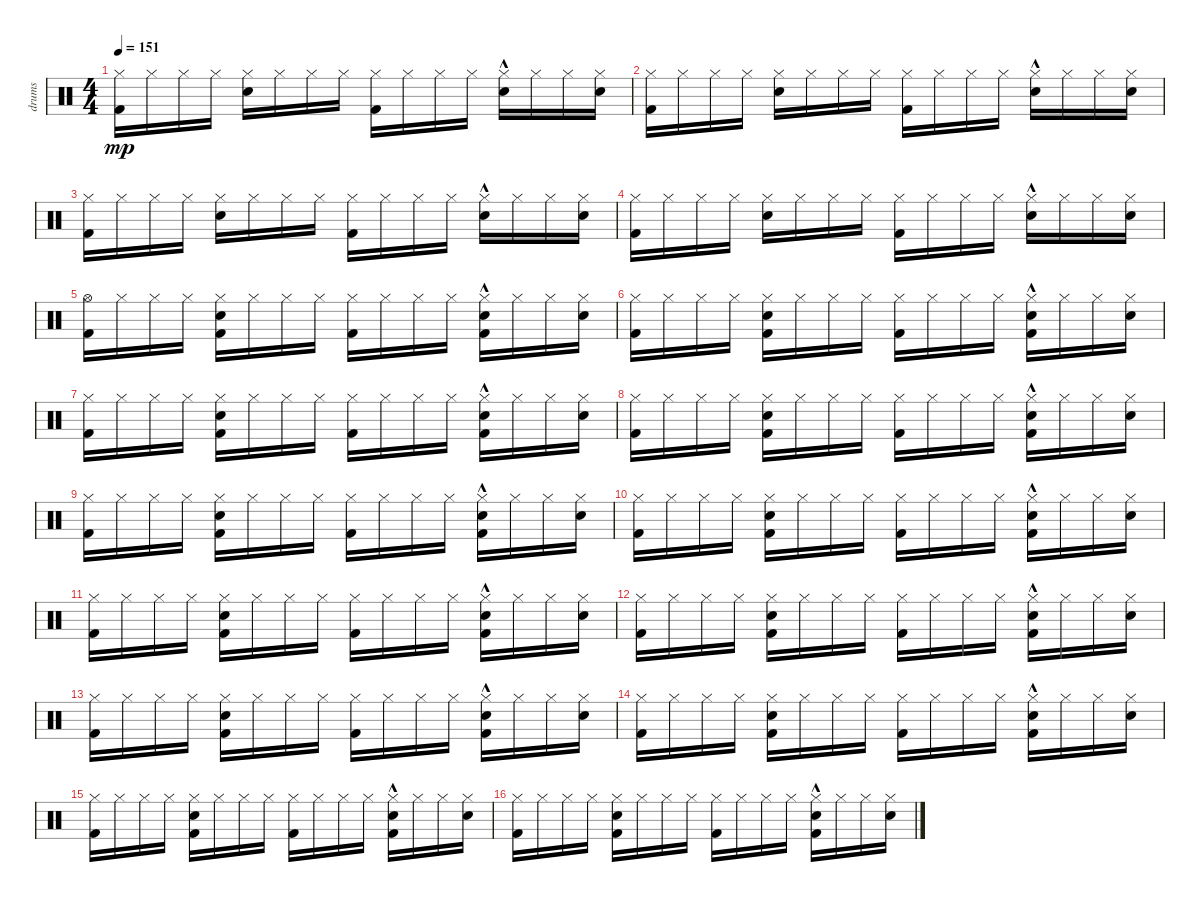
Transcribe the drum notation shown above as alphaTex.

\track ("drums" "drums") {instrument percussion}
\staff {score}
\articulation defaults
\ts (4 4)
\tempo 151
\clef neutral
\ks c
("Hi-Hat (closed)" "Kick (hit) 2").16{dy mp} "Hi-Hat (closed)".16 "Hi-Hat (closed)".16 "Hi-Hat (closed)".16 ("Hi-Hat (closed)" "Snare (hit) 2").16 "Hi-Hat (closed)".16 "Hi-Hat (closed)".16 "Hi-Hat (closed)".16 ("Hi-Hat (closed)" "Kick (hit) 2").16 "Hi-Hat (closed)".16 "Hi-Hat (closed)".16 "Hi-Hat (closed)".16 ("Hi-Hat (closed)" "Snare (hit) 2"{hac}).16 "Hi-Hat (closed)".16 "Hi-Hat (closed)".16 ("Hi-Hat (closed)" "Snare (hit) 2").16 |
("Hi-Hat (closed)" "Kick (hit) 2").16 "Hi-Hat (closed)".16 "Hi-Hat (closed)".16 "Hi-Hat (closed)".16 ("Hi-Hat (closed)" "Snare (hit) 2").16 "Hi-Hat (closed)".16 "Hi-Hat (closed)".16 "Hi-Hat (closed)".16 ("Hi-Hat (closed)" "Kick (hit) 2").16 "Hi-Hat (closed)".16 "Hi-Hat (closed)".16 "Hi-Hat (closed)".16 ("Hi-Hat (closed)" "Snare (hit) 2"{hac}).16 "Hi-Hat (closed)".16 "Hi-Hat (closed)".16 ("Hi-Hat (closed)" "Snare (hit) 2").16 |
("Hi-Hat (closed)" "Kick (hit) 2").16 "Hi-Hat (closed)".16 "Hi-Hat (closed)".16 "Hi-Hat (closed)".16 ("Hi-Hat (closed)" "Snare (hit) 2").16 "Hi-Hat (closed)".16 "Hi-Hat (closed)".16 "Hi-Hat (closed)".16 ("Hi-Hat (closed)" "Kick (hit) 2").16 "Hi-Hat (closed)".16 "Hi-Hat (closed)".16 "Hi-Hat (closed)".16 ("Hi-Hat (closed)" "Snare (hit) 2"{hac}).16 "Hi-Hat (closed)".16 "Hi-Hat (closed)".16 ("Hi-Hat (closed)" "Snare (hit) 2").16 |
("Hi-Hat (closed)" "Kick (hit) 2").16 "Hi-Hat (closed)".16 "Hi-Hat (closed)".16 "Hi-Hat (closed)".16 ("Hi-Hat (closed)" "Snare (hit) 2").16 "Hi-Hat (closed)".16 "Hi-Hat (closed)".16 "Hi-Hat (closed)".16 ("Hi-Hat (closed)" "Kick (hit) 2").16 "Hi-Hat (closed)".16 "Hi-Hat (closed)".16 "Hi-Hat (closed)".16 ("Hi-Hat (closed)" "Snare (hit) 2"{hac}).16 "Hi-Hat (closed)".16 "Hi-Hat (closed)".16 ("Hi-Hat (closed)" "Snare (hit) 2").16 |
("Hi-Hat (open)" "Kick (hit) 2").16 "Hi-Hat (closed)".16 "Hi-Hat (closed)".16 "Hi-Hat (closed)".16 ("Hi-Hat (closed)" "Kick (hit) 2" "Snare (hit) 2").16 "Hi-Hat (closed)".16 "Hi-Hat (closed)".16 "Hi-Hat (closed)".16 ("Hi-Hat (closed)" "Kick (hit) 2").16 "Hi-Hat (closed)".16 "Hi-Hat (closed)".16 "Hi-Hat (closed)".16 ("Hi-Hat (closed)" "Kick (hit) 2"{hac} "Snare (hit) 2"{hac}).16 "Hi-Hat (closed)".16 "Hi-Hat (closed)".16 ("Hi-Hat (closed)" "Snare (hit) 2").16 |
("Hi-Hat (closed)" "Kick (hit) 2").16 "Hi-Hat (closed)".16 "Hi-Hat (closed)".16 "Hi-Hat (closed)".16 ("Hi-Hat (closed)" "Kick (hit) 2" "Snare (hit) 2").16 "Hi-Hat (closed)".16 "Hi-Hat (closed)".16 "Hi-Hat (closed)".16 ("Hi-Hat (closed)" "Kick (hit) 2").16 "Hi-Hat (closed)".16 "Hi-Hat (closed)".16 "Hi-Hat (closed)".16 ("Hi-Hat (closed)" "Kick (hit) 2"{hac} "Snare (hit) 2"{hac}).16 "Hi-Hat (closed)".16 "Hi-Hat (closed)".16 ("Hi-Hat (closed)" "Snare (hit) 2").16 |
("Hi-Hat (closed)" "Kick (hit) 2").16 "Hi-Hat (closed)".16 "Hi-Hat (closed)".16 "Hi-Hat (closed)".16 ("Hi-Hat (closed)" "Kick (hit) 2" "Snare (hit) 2").16 "Hi-Hat (closed)".16 "Hi-Hat (closed)".16 "Hi-Hat (closed)".16 ("Hi-Hat (closed)" "Kick (hit) 2").16 "Hi-Hat (closed)".16 "Hi-Hat (closed)".16 "Hi-Hat (closed)".16 ("Hi-Hat (closed)" "Kick (hit) 2"{hac} "Snare (hit) 2"{hac}).16 "Hi-Hat (closed)".16 "Hi-Hat (closed)".16 ("Hi-Hat (closed)" "Snare (hit) 2").16 |
("Hi-Hat (closed)" "Kick (hit) 2").16 "Hi-Hat (closed)".16 "Hi-Hat (closed)".16 "Hi-Hat (closed)".16 ("Hi-Hat (closed)" "Kick (hit) 2" "Snare (hit) 2").16 "Hi-Hat (closed)".16 "Hi-Hat (closed)".16 "Hi-Hat (closed)".16 ("Hi-Hat (closed)" "Kick (hit) 2").16 "Hi-Hat (closed)".16 "Hi-Hat (closed)".16 "Hi-Hat (closed)".16 ("Hi-Hat (closed)" "Kick (hit) 2"{hac} "Snare (hit) 2"{hac}).16 "Hi-Hat (closed)".16 "Hi-Hat (closed)".16 ("Hi-Hat (closed)" "Snare (hit) 2").16 |
("Hi-Hat (closed)" "Kick (hit) 2").16 "Hi-Hat (closed)".16 "Hi-Hat (closed)".16 "Hi-Hat (closed)".16 ("Hi-Hat (closed)" "Kick (hit) 2" "Snare (hit) 2").16 "Hi-Hat (closed)".16 "Hi-Hat (closed)".16 "Hi-Hat (closed)".16 ("Hi-Hat (closed)" "Kick (hit) 2").16 "Hi-Hat (closed)".16 "Hi-Hat (closed)".16 "Hi-Hat (closed)".16 ("Hi-Hat (closed)" "Kick (hit) 2"{hac} "Snare (hit) 2"{hac}).16 "Hi-Hat (closed)".16 "Hi-Hat (closed)".16 ("Hi-Hat (closed)" "Snare (hit) 2").16 |
("Hi-Hat (closed)" "Kick (hit) 2").16 "Hi-Hat (closed)".16 "Hi-Hat (closed)".16 "Hi-Hat (closed)".16 ("Hi-Hat (closed)" "Kick (hit) 2" "Snare (hit) 2").16 "Hi-Hat (closed)".16 "Hi-Hat (closed)".16 "Hi-Hat (closed)".16 ("Hi-Hat (closed)" "Kick (hit) 2").16 "Hi-Hat (closed)".16 "Hi-Hat (closed)".16 "Hi-Hat (closed)".16 ("Hi-Hat (closed)" "Kick (hit) 2"{hac} "Snare (hit) 2"{hac}).16 "Hi-Hat (closed)".16 "Hi-Hat (closed)".16 ("Hi-Hat (closed)" "Snare (hit) 2").16 |
("Hi-Hat (closed)" "Kick (hit) 2").16 "Hi-Hat (closed)".16 "Hi-Hat (closed)".16 "Hi-Hat (closed)".16 ("Hi-Hat (closed)" "Kick (hit) 2" "Snare (hit) 2").16 "Hi-Hat (closed)".16 "Hi-Hat (closed)".16 "Hi-Hat (closed)".16 ("Hi-Hat (closed)" "Kick (hit) 2").16 "Hi-Hat (closed)".16 "Hi-Hat (closed)".16 "Hi-Hat (closed)".16 ("Hi-Hat (closed)" "Kick (hit) 2"{hac} "Snare (hit) 2"{hac}).16 "Hi-Hat (closed)".16 "Hi-Hat (closed)".16 ("Hi-Hat (closed)" "Snare (hit) 2").16 |
("Hi-Hat (closed)" "Kick (hit) 2").16 "Hi-Hat (closed)".16 "Hi-Hat (closed)".16 "Hi-Hat (closed)".16 ("Hi-Hat (closed)" "Kick (hit) 2" "Snare (hit) 2").16 "Hi-Hat (closed)".16 "Hi-Hat (closed)".16 "Hi-Hat (closed)".16 ("Hi-Hat (closed)" "Kick (hit) 2").16 "Hi-Hat (closed)".16 "Hi-Hat (closed)".16 "Hi-Hat (closed)".16 ("Hi-Hat (closed)" "Kick (hit) 2"{hac} "Snare (hit) 2"{hac}).16 "Hi-Hat (closed)".16 "Hi-Hat (closed)".16 ("Hi-Hat (closed)" "Snare (hit) 2").16 |
("Hi-Hat (closed)" "Kick (hit) 2").16 "Hi-Hat (closed)".16 "Hi-Hat (closed)".16 "Hi-Hat (closed)".16 ("Hi-Hat (closed)" "Kick (hit) 2" "Snare (hit) 2").16 "Hi-Hat (closed)".16 "Hi-Hat (closed)".16 "Hi-Hat (closed)".16 ("Hi-Hat (closed)" "Kick (hit) 2").16 "Hi-Hat (closed)".16 "Hi-Hat (closed)".16 "Hi-Hat (closed)".16 ("Hi-Hat (closed)" "Kick (hit) 2"{hac} "Snare (hit) 2"{hac}).16 "Hi-Hat (closed)".16 "Hi-Hat (closed)".16 ("Hi-Hat (closed)" "Snare (hit) 2").16 |
("Hi-Hat (closed)" "Kick (hit) 2").16 "Hi-Hat (closed)".16 "Hi-Hat (closed)".16 "Hi-Hat (closed)".16 ("Hi-Hat (closed)" "Kick (hit) 2" "Snare (hit) 2").16 "Hi-Hat (closed)".16 "Hi-Hat (closed)".16 "Hi-Hat (closed)".16 ("Hi-Hat (closed)" "Kick (hit) 2").16 "Hi-Hat (closed)".16 "Hi-Hat (closed)".16 "Hi-Hat (closed)".16 ("Hi-Hat (closed)" "Kick (hit) 2"{hac} "Snare (hit) 2"{hac}).16 "Hi-Hat (closed)".16 "Hi-Hat (closed)".16 ("Hi-Hat (closed)" "Snare (hit) 2").16 |
("Hi-Hat (closed)" "Kick (hit) 2").16 "Hi-Hat (closed)".16 "Hi-Hat (closed)".16 "Hi-Hat (closed)".16 ("Hi-Hat (closed)" "Kick (hit) 2" "Snare (hit) 2").16 "Hi-Hat (closed)".16 "Hi-Hat (closed)".16 "Hi-Hat (closed)".16 ("Hi-Hat (closed)" "Kick (hit) 2").16 "Hi-Hat (closed)".16 "Hi-Hat (closed)".16 "Hi-Hat (closed)".16 ("Hi-Hat (closed)" "Kick (hit) 2"{hac} "Snare (hit) 2"{hac}).16 "Hi-Hat (closed)".16 "Hi-Hat (closed)".16 ("Hi-Hat (closed)" "Snare (hit) 2").16 |
("Hi-Hat (closed)" "Kick (hit) 2").16 "Hi-Hat (closed)".16 "Hi-Hat (closed)".16 "Hi-Hat (closed)".16 ("Hi-Hat (closed)" "Kick (hit) 2" "Snare (hit) 2").16 "Hi-Hat (closed)".16 "Hi-Hat (closed)".16 "Hi-Hat (closed)".16 ("Hi-Hat (closed)" "Kick (hit) 2").16 "Hi-Hat (closed)".16 "Hi-Hat (closed)".16 "Hi-Hat (closed)".16 ("Hi-Hat (closed)" "Kick (hit) 2"{hac} "Snare (hit) 2"{hac}).16 "Hi-Hat (closed)".16 "Hi-Hat (closed)".16 ("Hi-Hat (closed)" "Snare (hit) 2").16
